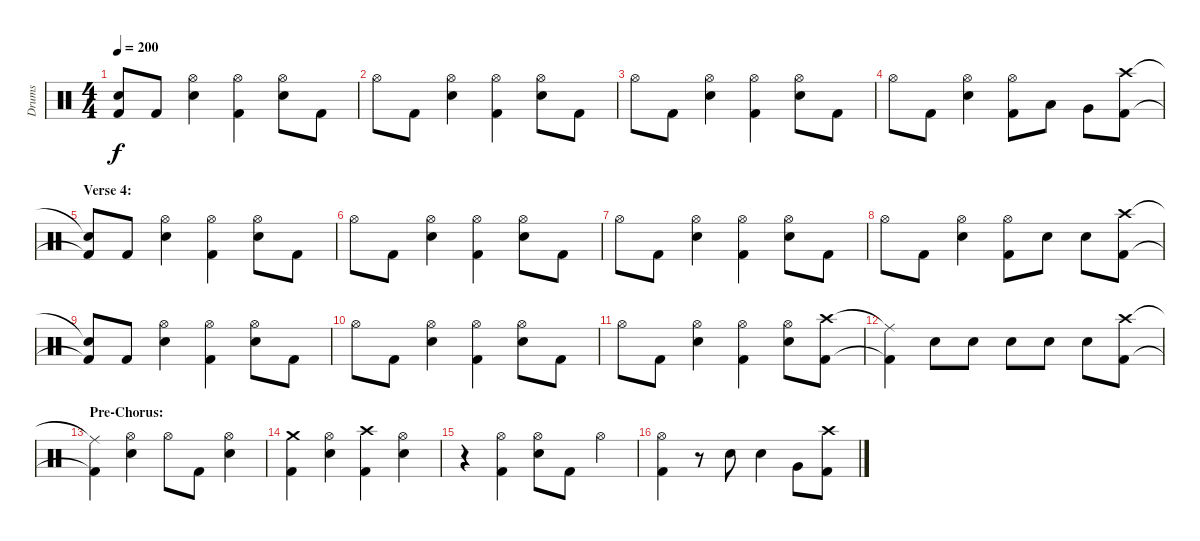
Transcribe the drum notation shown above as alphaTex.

\track ("Drums" "Drums") {instrument percussion}
\staff {score}
\articulation defaults
\ts (4 4)
\tempo 200
\clef neutral
\ks c
("Snare (hit)"{t} "Kick (hit) 2"{t}).8{dy f} "Kick (hit) 2".8 ("Hi-Hat (open)" "Electric Snare (hit)").4 ("Hi-Hat (open)" "Kick (hit) 2").4 ("Hi-Hat (open)" "Electric Snare (hit)").8 "Kick (hit) 2".8 |
"Hi-Hat (open)".8 "Kick (hit) 2".8 ("Hi-Hat (open)" "Electric Snare (hit)").4 ("Hi-Hat (open)" "Kick (hit) 2").4 ("Hi-Hat (open)" "Electric Snare (hit)").8 "Kick (hit) 2".8 |
"Hi-Hat (open)".8 "Kick (hit) 2".8 ("Hi-Hat (open)" "Electric Snare (hit)").4 ("Hi-Hat (open)" "Kick (hit) 2").4 ("Hi-Hat (open)" "Electric Snare (hit)").8 "Kick (hit) 2".8 |
"Hi-Hat (open)".8 "Kick (hit) 2".8 ("Hi-Hat (open)" "Electric Snare (hit)").4 ("Hi-Hat (open)" "Kick (hit) 2").8 "Low Tom (hit)".8 "Very Low Tom (hit)".8 ("Crash high (hit)" "Kick (hit) 2").8 |
\section ("" "Verse 4:")
("Snare (hit)"{t} "Kick (hit) 2"{t}).8 "Kick (hit) 2".8 ("Hi-Hat (open)" "Electric Snare (hit)").4 ("Hi-Hat (open)" "Kick (hit) 2").4 ("Hi-Hat (open)" "Electric Snare (hit)").8 "Kick (hit) 2".8 |
"Hi-Hat (open)".8 "Kick (hit) 2".8 ("Hi-Hat (open)" "Electric Snare (hit)").4 ("Hi-Hat (open)" "Kick (hit) 2").4 ("Hi-Hat (open)" "Electric Snare (hit)").8 "Kick (hit) 2".8 |
"Hi-Hat (open)".8 "Kick (hit) 2".8 ("Hi-Hat (open)" "Electric Snare (hit)").4 ("Hi-Hat (open)" "Kick (hit) 2").4 ("Hi-Hat (open)" "Electric Snare (hit)").8 "Kick (hit) 2".8 |
"Hi-Hat (open)".8 "Kick (hit) 2".8 ("Hi-Hat (open)" "Electric Snare (hit)").4 ("Hi-Hat (open)" "Kick (hit) 2").8 "Electric Snare (hit)".8 "Electric Snare (hit)".8 ("Crash high (hit)" "Kick (hit) 2").8 |
("Snare (hit)"{t} "Kick (hit) 2"{t}).8 "Kick (hit) 2".8 ("Hi-Hat (open)" "Electric Snare (hit)").4 ("Hi-Hat (open)" "Kick (hit) 2").4 ("Hi-Hat (open)" "Electric Snare (hit)").8 "Kick (hit) 2".8 |
"Hi-Hat (open)".8 "Kick (hit) 2".8 ("Hi-Hat (open)" "Electric Snare (hit)").4 ("Hi-Hat (open)" "Kick (hit) 2").4 ("Hi-Hat (open)" "Electric Snare (hit)").8 "Kick (hit) 2".8 |
"Hi-Hat (open)".8 "Kick (hit) 2".8 ("Hi-Hat (open)" "Electric Snare (hit)").4 ("Hi-Hat (open)" "Kick (hit) 2").4 ("Hi-Hat (open)" "Electric Snare (hit)").8 ("Crash high (hit)" "Kick (hit) 2").8 |
("Ride (middle)"{t} "Kick (hit) 2"{t}).4 "Electric Snare (hit)".8 "Electric Snare (hit)".8 "Electric Snare (hit)".8 "Electric Snare (hit)".8 "Electric Snare (hit)".8 ("Crash high (hit)" "Kick (hit) 2").8 |
\section ("" "Pre-Chorus:")
("Ride (middle)"{t} "Kick (hit) 2"{t}).4 ("Hi-Hat (open)" "Electric Snare (hit)").4 "Hi-Hat (open)".8 "Kick (hit) 2".8 ("Hi-Hat (open)" "Electric Snare (hit)").4 |
("Crash medium (hit)" "Kick (hit) 2").4 ("Hi-Hat (open)" "Electric Snare (hit)").4 ("Crash high (hit)" "Kick (hit) 2").4 ("Hi-Hat (open)" "Electric Snare (hit)").4 |
r.4 ("Hi-Hat (open)" "Kick (hit) 2").4 ("Hi-Hat (open)" "Electric Snare (hit)").8 "Kick (hit) 2".8 "Hi-Hat (open)".4 |
("Hi-Hat (open)" "Kick (hit) 2").4 r.8 "Electric Snare (hit)".8 "Electric Snare (hit)".4 "Very Low Tom (hit)".8 ("Crash high (hit)" "Kick (hit) 2").8
